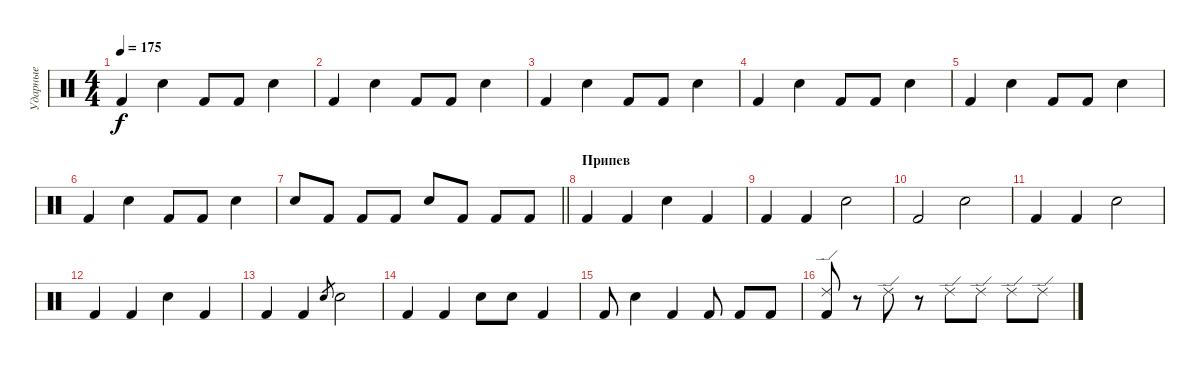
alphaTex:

\track ("Ударные" "Ударные") {instrument percussion}
\staff {score}
\articulation defaults
\ts (4 4)
\tempo 175
\clef neutral
\ks c "Kick (hit) 2".4{dy f} "Electric Snare (hit)".4 "Kick (hit) 2".8 "Kick (hit) 2".8 "Electric Snare (hit)".4
|
"Kick (hit) 2".4 "Electric Snare (hit)".4 "Kick (hit) 2".8 "Kick (hit) 2".8 "Electric Snare (hit)".4 |
"Kick (hit) 2".4 "Electric Snare (hit)".4 "Kick (hit) 2".8 "Kick (hit) 2".8 "Electric Snare (hit)".4 |
"Kick (hit) 2".4 "Electric Snare (hit)".4 "Kick (hit) 2".8 "Kick (hit) 2".8 "Electric Snare (hit)".4 |
"Kick (hit) 2".4 "Electric Snare (hit)".4 "Kick (hit) 2".8 "Kick (hit) 2".8 "Electric Snare (hit)".4 |
"Kick (hit) 2".4 "Electric Snare (hit)".4 "Kick (hit) 2".8 "Kick (hit) 2".8 "Electric Snare (hit)".4 |
\barLineRight lightlight "Electric Snare (hit)".8 "Kick (hit) 2".8 "Kick (hit) 2".8 "Kick (hit) 2".8 "Electric Snare (hit)".8 "Kick (hit) 2".8 "Kick (hit) 2".8 "Kick (hit) 2".8
|
\section ("" "Припев")
"Kick (hit) 2".4 "Kick (hit) 2".4 "Electric Snare (hit)".4 "Kick (hit) 2".4 |
"Kick (hit) 2".4 "Kick (hit) 2".4 "Electric Snare (hit)".2 |
"Kick (hit) 2".2 "Electric Snare (hit)".2 |
"Kick (hit) 2".4 "Kick (hit) 2".4 "Electric Snare (hit)".2 |
"Kick (hit) 2".4 "Kick (hit) 2".4 "Electric Snare (hit)".4 "Kick (hit) 2".4 |
"Kick (hit) 2".4 "Kick (hit) 2".4 "Electric Snare (hit)".8{gr} "Electric Snare (hit)".2 |
"Kick (hit) 2".4 "Kick (hit) 2".4 "Electric Snare (hit)".8 "Electric Snare (hit)".8 "Kick (hit) 2".4 |
"Kick (hit) 2".8 "Electric Snare (hit)".4 "Kick (hit) 2".4 "Kick (hit) 2".8 "Kick (hit) 2".8 "Kick (hit) 2".8 |
("Ride (edge) 2" "Kick (hit) 2").8 r.8 "Ride (edge) 2".8 r.8 "Ride (edge) 2".8 "Ride (edge) 2".8 "Ride (edge) 2".8 "Ride (edge) 2".8
